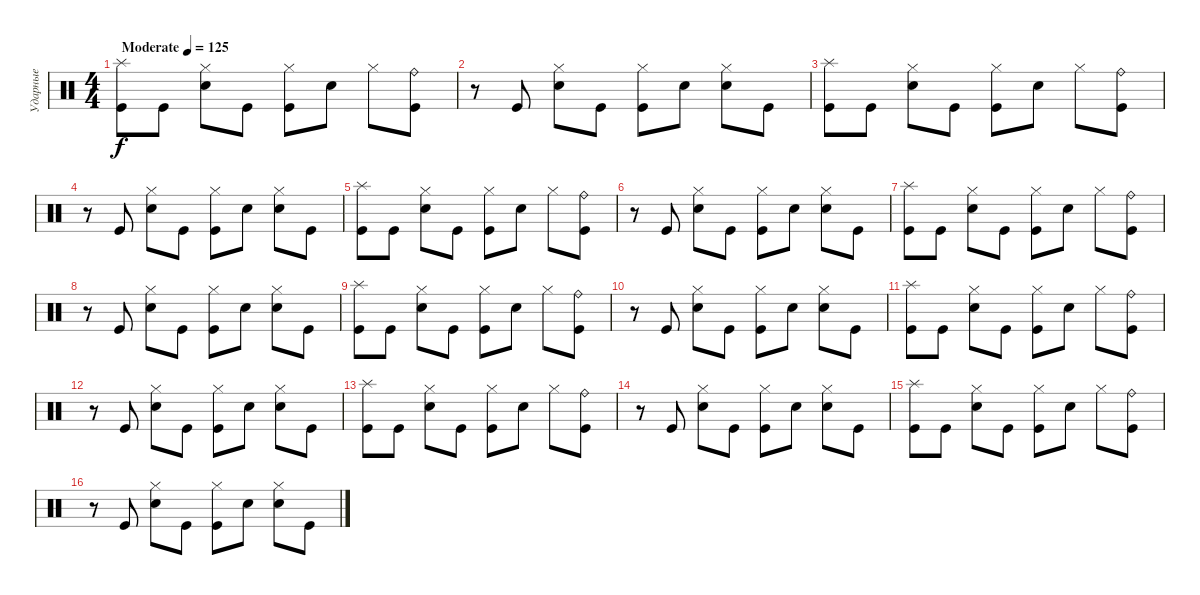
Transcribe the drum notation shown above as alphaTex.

\track ("Ударные" "Ударные") {instrument percussion}
\staff {score}
\articulation defaults
\ts (4 4)
\tempo (125 "Moderate")
\clef neutral
\ks c
("Splash (hit)" "Kick (hit)").8{dy f} "Kick (hit)".8 ("Hi-Hat (closed)" "Snare (hit) 2").8 "Kick (hit)".8 ("Hi-Hat (closed)" "Kick (hit)").8 "Snare (hit) 2".8 "Hi-Hat (closed)".8 ("Ride (bell)" "Kick (hit)").8 |
r.8 "Kick (hit)".8 ("Hi-Hat (closed)" "Snare (hit) 2").8 "Kick (hit)".8 ("Hi-Hat (closed)" "Kick (hit)").8 "Snare (hit) 2".8 ("Hi-Hat (closed)" "Snare (hit) 2").8 "Kick (hit)".8 |
("Splash (hit)" "Kick (hit)").8 "Kick (hit)".8 ("Hi-Hat (closed)" "Snare (hit) 2").8 "Kick (hit)".8 ("Hi-Hat (closed)" "Kick (hit)").8 "Snare (hit) 2".8 "Hi-Hat (closed)".8 ("Ride (bell)" "Kick (hit)").8 |
r.8 "Kick (hit)".8 ("Hi-Hat (closed)" "Snare (hit) 2").8 "Kick (hit)".8 ("Hi-Hat (closed)" "Kick (hit)").8 "Snare (hit) 2".8 ("Hi-Hat (closed)" "Snare (hit) 2").8 "Kick (hit)".8 |
("Splash (hit)" "Kick (hit)").8 "Kick (hit)".8 ("Hi-Hat (closed)" "Snare (hit) 2").8 "Kick (hit)".8 ("Hi-Hat (closed)" "Kick (hit)").8 "Snare (hit) 2".8 "Hi-Hat (closed)".8 ("Ride (bell)" "Kick (hit)").8 |
r.8 "Kick (hit)".8 ("Hi-Hat (closed)" "Snare (hit) 2").8 "Kick (hit)".8 ("Hi-Hat (closed)" "Kick (hit)").8 "Snare (hit) 2".8 ("Hi-Hat (closed)" "Snare (hit) 2").8 "Kick (hit)".8 |
("Splash (hit)" "Kick (hit)").8 "Kick (hit)".8 ("Hi-Hat (closed)" "Snare (hit) 2").8 "Kick (hit)".8 ("Hi-Hat (closed)" "Kick (hit)").8 "Snare (hit) 2".8 "Hi-Hat (closed)".8 ("Ride (bell)" "Kick (hit)").8 |
r.8 "Kick (hit)".8 ("Hi-Hat (closed)" "Snare (hit) 2").8 "Kick (hit)".8 ("Hi-Hat (closed)" "Kick (hit)").8 "Snare (hit) 2".8 ("Hi-Hat (closed)" "Snare (hit) 2").8 "Kick (hit)".8 |
("Splash (hit)" "Kick (hit)").8 "Kick (hit)".8 ("Hi-Hat (closed)" "Snare (hit) 2").8 "Kick (hit)".8 ("Hi-Hat (closed)" "Kick (hit)").8 "Snare (hit) 2".8 "Hi-Hat (closed)".8 ("Ride (bell)" "Kick (hit)").8 |
r.8 "Kick (hit)".8 ("Hi-Hat (closed)" "Snare (hit) 2").8 "Kick (hit)".8 ("Hi-Hat (closed)" "Kick (hit)").8 "Snare (hit) 2".8 ("Hi-Hat (closed)" "Snare (hit) 2").8 "Kick (hit)".8 |
("Splash (hit)" "Kick (hit)").8 "Kick (hit)".8 ("Hi-Hat (closed)" "Snare (hit) 2").8 "Kick (hit)".8 ("Hi-Hat (closed)" "Kick (hit)").8 "Snare (hit) 2".8 "Hi-Hat (closed)".8 ("Ride (bell)" "Kick (hit)").8 |
r.8 "Kick (hit)".8 ("Hi-Hat (closed)" "Snare (hit) 2").8 "Kick (hit)".8 ("Hi-Hat (closed)" "Kick (hit)").8 "Snare (hit) 2".8 ("Hi-Hat (closed)" "Snare (hit) 2").8 "Kick (hit)".8 |
("Splash (hit)" "Kick (hit)").8 "Kick (hit)".8 ("Hi-Hat (closed)" "Snare (hit) 2").8 "Kick (hit)".8 ("Hi-Hat (closed)" "Kick (hit)").8 "Snare (hit) 2".8 "Hi-Hat (closed)".8 ("Ride (bell)" "Kick (hit)").8 |
r.8 "Kick (hit)".8 ("Hi-Hat (closed)" "Snare (hit) 2").8 "Kick (hit)".8 ("Hi-Hat (closed)" "Kick (hit)").8 "Snare (hit) 2".8 ("Hi-Hat (closed)" "Snare (hit) 2").8 "Kick (hit)".8 |
("Splash (hit)" "Kick (hit)").8 "Kick (hit)".8 ("Hi-Hat (closed)" "Snare (hit) 2").8 "Kick (hit)".8 ("Hi-Hat (closed)" "Kick (hit)").8 "Snare (hit) 2".8 "Hi-Hat (closed)".8 ("Ride (bell)" "Kick (hit)").8 |
r.8 "Kick (hit)".8 ("Hi-Hat (closed)" "Snare (hit) 2").8 "Kick (hit)".8 ("Hi-Hat (closed)" "Kick (hit)").8 "Snare (hit) 2".8 ("Hi-Hat (closed)" "Snare (hit) 2").8 "Kick (hit)".8
